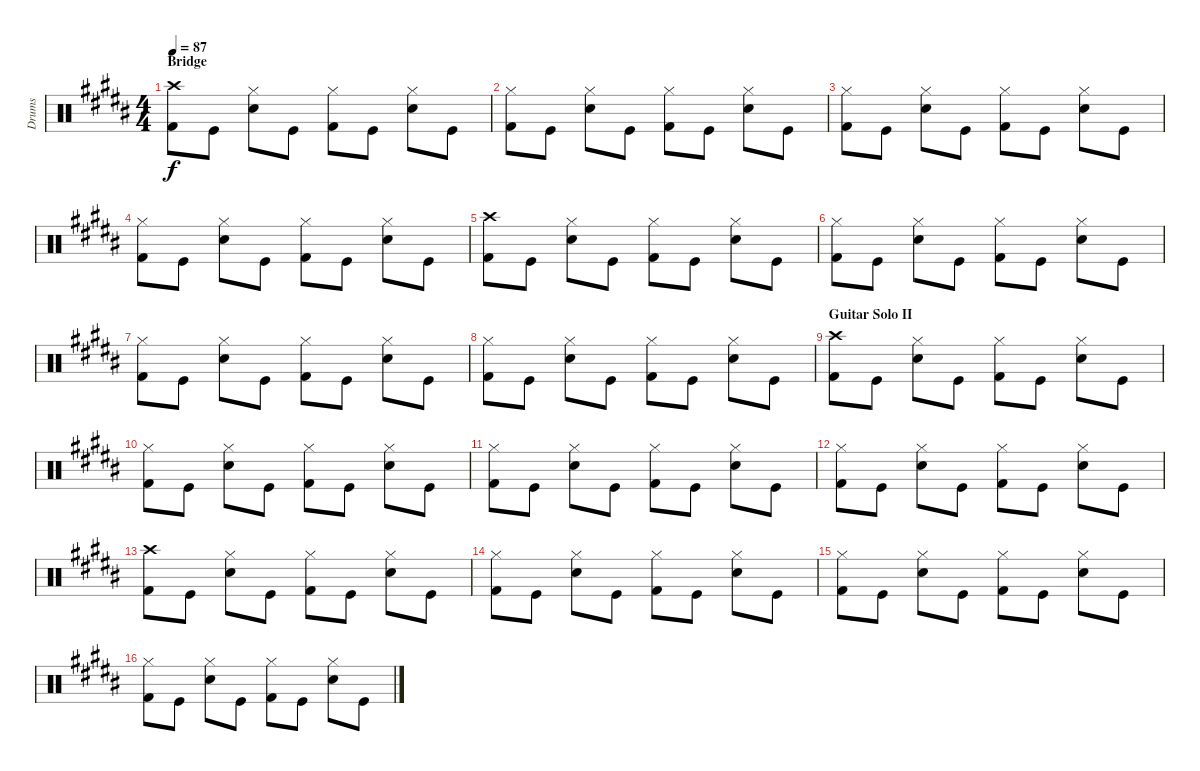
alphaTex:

\track ("Drums" "Drums") {instrument percussion}
\staff {score}
\articulation defaults
\ts (4 4)
\section ("" "Bridge")
\tempo 87
\clef neutral
\ks b
("Crash high (hit)" "Kick (hit) 2").8{dy f} "Kick (hit)".8 ("Hi-Hat (closed)" "Snare (hit) 2").8 "Kick (hit)".8 ("Hi-Hat (closed)" "Kick (hit) 2").8 "Kick (hit)".8 ("Hi-Hat (closed)" "Snare (hit) 2").8 "Kick (hit)".8 |
("Hi-Hat (closed)" "Kick (hit) 2").8 "Kick (hit)".8 ("Hi-Hat (closed)" "Snare (hit) 2").8 "Kick (hit)".8 ("Hi-Hat (closed)" "Kick (hit) 2").8 "Kick (hit)".8 ("Hi-Hat (closed)" "Snare (hit) 2").8 "Kick (hit)".8 |
("Hi-Hat (closed)" "Kick (hit) 2").8 "Kick (hit)".8 ("Hi-Hat (closed)" "Snare (hit) 2").8 "Kick (hit)".8 ("Hi-Hat (closed)" "Kick (hit) 2").8 "Kick (hit)".8 ("Hi-Hat (closed)" "Snare (hit) 2").8 "Kick (hit)".8 |
("Hi-Hat (closed)" "Kick (hit) 2").8 "Kick (hit)".8 ("Hi-Hat (closed)" "Snare (hit) 2").8 "Kick (hit)".8 ("Hi-Hat (closed)" "Kick (hit) 2").8 "Kick (hit)".8 ("Hi-Hat (closed)" "Snare (hit) 2").8 "Kick (hit)".8 |
("Crash high (hit)" "Kick (hit) 2").8 "Kick (hit)".8 ("Hi-Hat (closed)" "Snare (hit) 2").8 "Kick (hit)".8 ("Hi-Hat (closed)" "Kick (hit) 2").8 "Kick (hit)".8 ("Hi-Hat (closed)" "Snare (hit) 2").8 "Kick (hit)".8 |
("Hi-Hat (closed)" "Kick (hit) 2").8 "Kick (hit)".8 ("Hi-Hat (closed)" "Snare (hit) 2").8 "Kick (hit)".8 ("Hi-Hat (closed)" "Kick (hit) 2").8 "Kick (hit)".8 ("Hi-Hat (closed)" "Snare (hit) 2").8 "Kick (hit)".8 |
("Hi-Hat (closed)" "Kick (hit) 2").8 "Kick (hit)".8 ("Hi-Hat (closed)" "Snare (hit) 2").8 "Kick (hit)".8 ("Hi-Hat (closed)" "Kick (hit) 2").8 "Kick (hit)".8 ("Hi-Hat (closed)" "Snare (hit) 2").8 "Kick (hit)".8 |
("Hi-Hat (closed)" "Kick (hit) 2").8 "Kick (hit)".8 ("Hi-Hat (closed)" "Snare (hit) 2").8 "Kick (hit)".8 ("Hi-Hat (closed)" "Kick (hit) 2").8 "Kick (hit)".8 ("Hi-Hat (closed)" "Snare (hit) 2").8 "Kick (hit)".8 |
\section ("" "Guitar Solo II")
("Crash high (hit)" "Kick (hit) 2").8 "Kick (hit)".8 ("Hi-Hat (closed)" "Snare (hit) 2").8 "Kick (hit)".8 ("Hi-Hat (closed)" "Kick (hit) 2").8 "Kick (hit)".8 ("Hi-Hat (closed)" "Snare (hit) 2").8 "Kick (hit)".8 |
("Hi-Hat (closed)" "Kick (hit) 2").8 "Kick (hit)".8 ("Hi-Hat (closed)" "Snare (hit) 2").8 "Kick (hit)".8 ("Hi-Hat (closed)" "Kick (hit) 2").8 "Kick (hit)".8 ("Hi-Hat (closed)" "Snare (hit) 2").8 "Kick (hit)".8 |
("Hi-Hat (closed)" "Kick (hit) 2").8 "Kick (hit)".8 ("Hi-Hat (closed)" "Snare (hit) 2").8 "Kick (hit)".8 ("Hi-Hat (closed)" "Kick (hit) 2").8 "Kick (hit)".8 ("Hi-Hat (closed)" "Snare (hit) 2").8 "Kick (hit)".8 |
("Hi-Hat (closed)" "Kick (hit) 2").8 "Kick (hit)".8 ("Hi-Hat (closed)" "Snare (hit) 2").8 "Kick (hit)".8 ("Hi-Hat (closed)" "Kick (hit) 2").8 "Kick (hit)".8 ("Hi-Hat (closed)" "Snare (hit) 2").8 "Kick (hit)".8 |
("Crash high (hit)" "Kick (hit) 2").8 "Kick (hit)".8 ("Hi-Hat (closed)" "Snare (hit) 2").8 "Kick (hit)".8 ("Hi-Hat (closed)" "Kick (hit) 2").8 "Kick (hit)".8 ("Hi-Hat (closed)" "Snare (hit) 2").8 "Kick (hit)".8 |
("Hi-Hat (closed)" "Kick (hit) 2").8 "Kick (hit)".8 ("Hi-Hat (closed)" "Snare (hit) 2").8 "Kick (hit)".8 ("Hi-Hat (closed)" "Kick (hit) 2").8 "Kick (hit)".8 ("Hi-Hat (closed)" "Snare (hit) 2").8 "Kick (hit)".8 |
("Hi-Hat (closed)" "Kick (hit) 2").8 "Kick (hit)".8 ("Hi-Hat (closed)" "Snare (hit) 2").8 "Kick (hit)".8 ("Hi-Hat (closed)" "Kick (hit) 2").8 "Kick (hit)".8 ("Hi-Hat (closed)" "Snare (hit) 2").8 "Kick (hit)".8 |
("Hi-Hat (closed)" "Kick (hit) 2").8 "Kick (hit)".8 ("Hi-Hat (closed)" "Snare (hit) 2").8 "Kick (hit)".8 ("Hi-Hat (closed)" "Kick (hit) 2").8 "Kick (hit)".8 ("Hi-Hat (closed)" "Snare (hit) 2").8 "Kick (hit)".8
